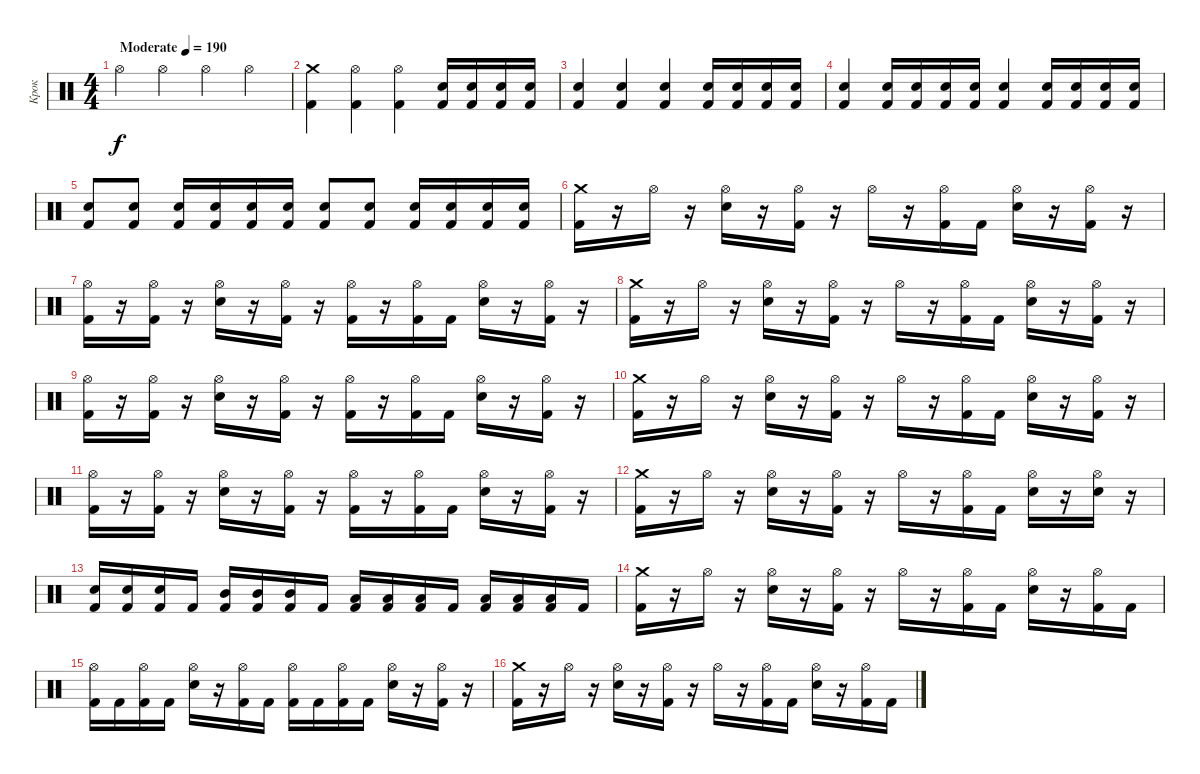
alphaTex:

\track ("Крок" "Крок") {instrument percussion}
\staff {score}
\articulation defaults
\ts (4 4)
\tempo (190 "Moderate")
\clef neutral
\ks c "Hi-Hat (open)".4{dy f} "Hi-Hat (open)".4 "Hi-Hat (open)".4 "Hi-Hat (open)".4
|
("Crash medium (hit)" "Kick (hit) 2").4 ("Hi-Hat (open)" "Kick (hit) 2").4 ("Hi-Hat (open)" "Kick (hit) 2").4 ("Kick (hit) 2" "Electric Snare (hit)").16 ("Kick (hit) 2" "Electric Snare (hit)").16 ("Kick (hit) 2" "Electric Snare (hit)").16 ("Kick (hit) 2" "Electric Snare (hit)").16 |
("Kick (hit) 2" "Electric Snare (hit)").4 ("Kick (hit) 2" "Electric Snare (hit)").4 ("Kick (hit) 2" "Electric Snare (hit)").4 ("Kick (hit) 2" "Electric Snare (hit)").16 ("Kick (hit) 2" "Electric Snare (hit)").16 ("Kick (hit) 2" "Electric Snare (hit)").16 ("Kick (hit) 2" "Electric Snare (hit)").16 |
("Kick (hit) 2" "Electric Snare (hit)").4 ("Kick (hit) 2" "Electric Snare (hit)").16 ("Kick (hit) 2" "Electric Snare (hit)").16 ("Kick (hit) 2" "Electric Snare (hit)").16 ("Kick (hit) 2" "Electric Snare (hit)").16 ("Kick (hit) 2" "Electric Snare (hit)").4 ("Kick (hit) 2" "Electric Snare (hit)").16 ("Kick (hit) 2" "Electric Snare (hit)").16 ("Kick (hit) 2" "Electric Snare (hit)").16 ("Kick (hit) 2" "Electric Snare (hit)").16 |
("Kick (hit) 2" "Electric Snare (hit)").8 ("Kick (hit) 2" "Electric Snare (hit)").8 ("Kick (hit) 2" "Electric Snare (hit)").16 ("Kick (hit) 2" "Electric Snare (hit)").16 ("Kick (hit) 2" "Electric Snare (hit)").16 ("Kick (hit) 2" "Electric Snare (hit)").16 ("Kick (hit) 2" "Electric Snare (hit)").8 ("Kick (hit) 2" "Electric Snare (hit)").8 ("Kick (hit) 2" "Electric Snare (hit)").16 ("Kick (hit) 2" "Electric Snare (hit)").16 ("Kick (hit) 2" "Electric Snare (hit)").16 ("Kick (hit) 2" "Electric Snare (hit)").16 |
("Crash medium (hit)" "Kick (hit) 2").16 r.16 "Hi-Hat (open)".16 r.16 ("Hi-Hat (open)" "Electric Snare (hit)").16 r.16 ("Hi-Hat (open)" "Kick (hit) 2").16 r.16 "Hi-Hat (open)".16 r.16 ("Hi-Hat (open)" "Kick (hit) 2").16 "Kick (hit) 2".16 ("Hi-Hat (open)" "Electric Snare (hit)").16 r.16 ("Hi-Hat (open)" "Kick (hit) 2").16 r.16 |
("Hi-Hat (open)" "Kick (hit) 2").16 r.16 ("Hi-Hat (open)" "Kick (hit) 2").16 r.16 ("Hi-Hat (open)" "Electric Snare (hit)").16 r.16 ("Hi-Hat (open)" "Kick (hit) 2").16 r.16 ("Hi-Hat (open)" "Kick (hit) 2").16 r.16 ("Hi-Hat (open)" "Kick (hit) 2").16 "Kick (hit) 2".16 ("Hi-Hat (open)" "Electric Snare (hit)").16 r.16 ("Hi-Hat (open)" "Kick (hit) 2").16 r.16 |
("Crash medium (hit)" "Kick (hit) 2").16 r.16 "Hi-Hat (open)".16 r.16 ("Hi-Hat (open)" "Electric Snare (hit)").16 r.16 ("Hi-Hat (open)" "Kick (hit) 2").16 r.16 "Hi-Hat (open)".16 r.16 ("Hi-Hat (open)" "Kick (hit) 2").16 "Kick (hit) 2".16 ("Hi-Hat (open)" "Electric Snare (hit)").16 r.16 ("Hi-Hat (open)" "Kick (hit) 2").16 r.16 |
("Hi-Hat (open)" "Kick (hit) 2").16 r.16 ("Hi-Hat (open)" "Kick (hit) 2").16 r.16 ("Hi-Hat (open)" "Electric Snare (hit)").16 r.16 ("Hi-Hat (open)" "Kick (hit) 2").16 r.16 ("Hi-Hat (open)" "Kick (hit) 2").16 r.16 ("Hi-Hat (open)" "Kick (hit) 2").16 "Kick (hit) 2".16 ("Hi-Hat (open)" "Electric Snare (hit)").16 r.16 ("Hi-Hat (open)" "Kick (hit) 2").16 r.16 |
("Crash medium (hit)" "Kick (hit) 2").16 r.16 "Hi-Hat (open)".16 r.16 ("Hi-Hat (open)" "Electric Snare (hit)").16 r.16 ("Hi-Hat (open)" "Kick (hit) 2").16 r.16 "Hi-Hat (open)".16 r.16 ("Hi-Hat (open)" "Kick (hit) 2").16 "Kick (hit) 2".16 ("Hi-Hat (open)" "Electric Snare (hit)").16 r.16 ("Hi-Hat (open)" "Kick (hit) 2").16 r.16 |
("Hi-Hat (open)" "Kick (hit) 2").16 r.16 ("Hi-Hat (open)" "Kick (hit) 2").16 r.16 ("Hi-Hat (open)" "Electric Snare (hit)").16 r.16 ("Hi-Hat (open)" "Kick (hit) 2").16 r.16 ("Hi-Hat (open)" "Kick (hit) 2").16 r.16 ("Hi-Hat (open)" "Kick (hit) 2").16 "Kick (hit) 2".16 ("Hi-Hat (open)" "Electric Snare (hit)").16 r.16 ("Hi-Hat (open)" "Kick (hit) 2").16 r.16 |
("Crash medium (hit)" "Kick (hit) 2").16 r.16 "Hi-Hat (open)".16 r.16 ("Hi-Hat (open)" "Electric Snare (hit)").16 r.16 ("Hi-Hat (open)" "Kick (hit) 2").16 r.16 "Hi-Hat (open)".16 r.16 ("Hi-Hat (open)" "Kick (hit) 2").16 "Kick (hit) 2".16 ("Hi-Hat (open)" "Electric Snare (hit)").16 r.16 ("Hi-Hat (open)" "Electric Snare (hit)").16 r.16 |
("Electric Snare (hit)" "Kick (hit) 2").16 ("Electric Snare (hit)" "Kick (hit) 2").16 ("Electric Snare (hit)" "Kick (hit) 2").16 "Kick (hit) 2".16 ("Mid Tom (hit)" "Kick (hit) 2").16 ("Mid Tom (hit)" "Kick (hit) 2").16 ("Mid Tom (hit)" "Kick (hit) 2").16 "Kick (hit) 2".16 ("Low Tom (hit)" "Kick (hit) 2").16 ("Low Tom (hit)" "Kick (hit) 2").16 ("Low Tom (hit)" "Kick (hit) 2").16 "Kick (hit) 2".16 ("Low Floor Tom (hit)" "Kick (hit) 2").16 ("Low Floor Tom (hit)" "Kick (hit) 2").16 ("Low Floor Tom (hit)" "Kick (hit) 2").16 "Kick (hit) 2".16 |
("Crash medium (hit)" "Kick (hit) 2").16 r.16 "Hi-Hat (open)".16 r.16 ("Hi-Hat (open)" "Electric Snare (hit)").16 r.16 ("Hi-Hat (open)" "Kick (hit) 2").16 r.16 "Hi-Hat (open)".16 r.16 ("Hi-Hat (open)" "Kick (hit) 2").16 "Kick (hit) 2".16 ("Hi-Hat (open)" "Electric Snare (hit)").16 r.16 ("Hi-Hat (open)" "Kick (hit) 2").16 "Kick (hit) 2".16 |
("Hi-Hat (open)" "Kick (hit) 2").16 "Kick (hit) 2".16 ("Hi-Hat (open)" "Kick (hit) 2").16 "Kick (hit) 2".16 ("Hi-Hat (open)" "Electric Snare (hit)").16 r.16 ("Hi-Hat (open)" "Kick (hit) 2").16 "Kick (hit) 2".16 ("Hi-Hat (open)" "Kick (hit) 2").16 "Kick (hit) 2".16 ("Hi-Hat (open)" "Kick (hit) 2").16 "Kick (hit) 2".16 ("Hi-Hat (open)" "Electric Snare (hit)").16 r.16 ("Hi-Hat (open)" "Kick (hit) 2").16 r.16 |
("Crash medium (hit)" "Kick (hit) 2").16 r.16 "Hi-Hat (open)".16 r.16 ("Hi-Hat (open)" "Electric Snare (hit)").16 r.16 ("Hi-Hat (open)" "Kick (hit) 2").16 r.16 "Hi-Hat (open)".16 r.16 ("Hi-Hat (open)" "Kick (hit) 2").16 "Kick (hit) 2".16 ("Hi-Hat (open)" "Electric Snare (hit)").16 r.16 ("Hi-Hat (open)" "Kick (hit) 2").16 "Kick (hit) 2".16
